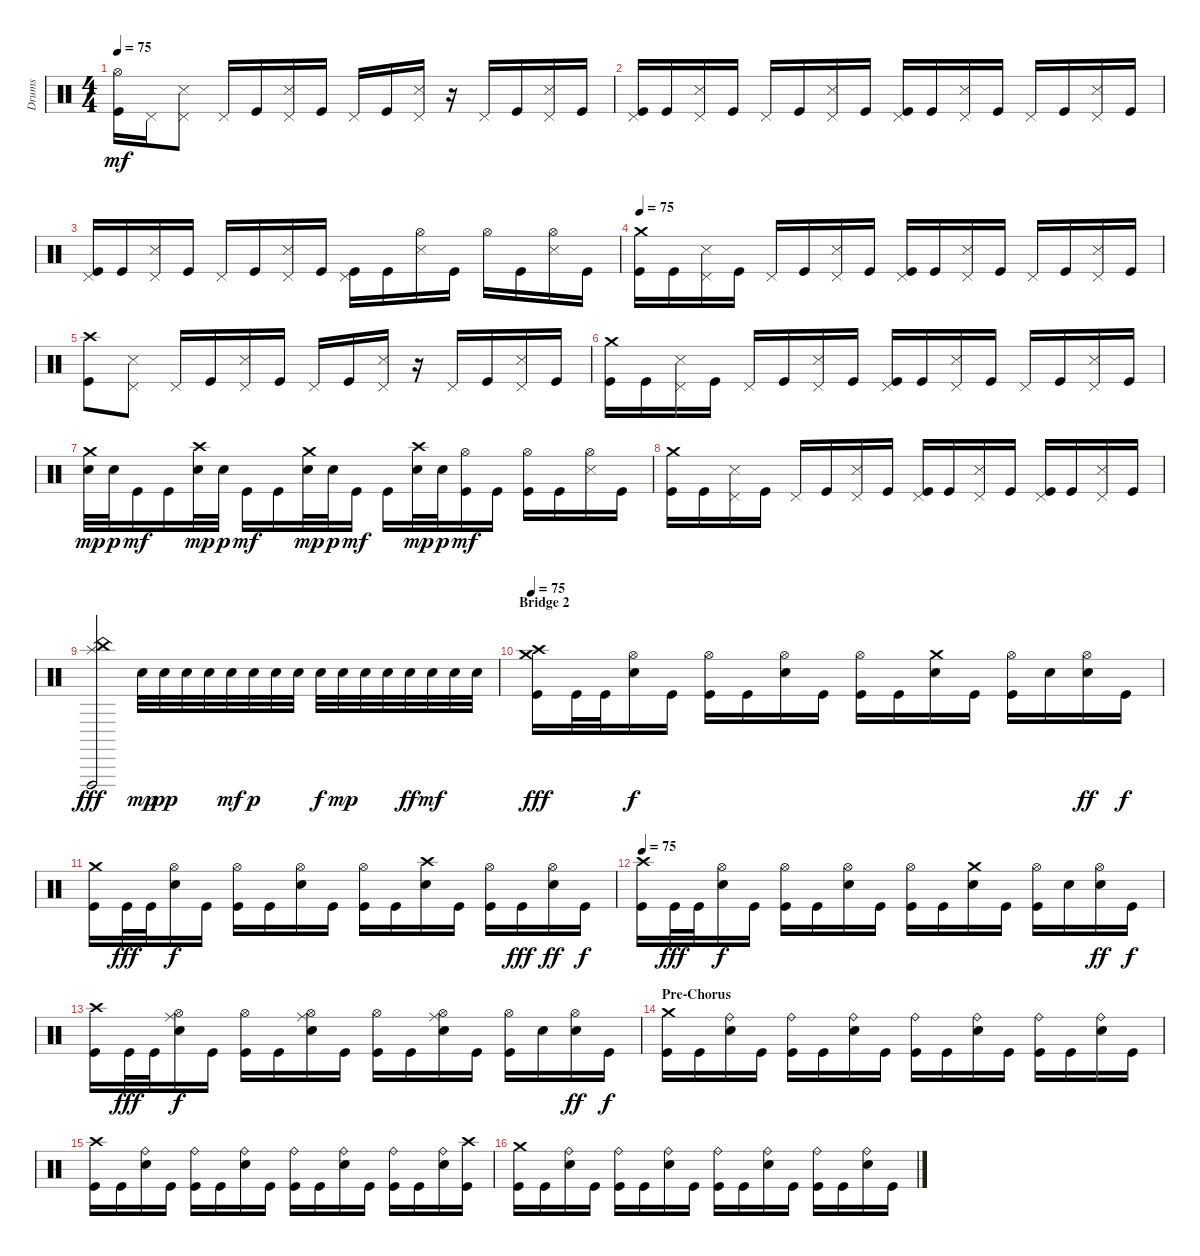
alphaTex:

\track ("Drums" "Drums") {instrument percussion}
\staff {score}
\articulation defaults
\ts (4 4)
\tempo 75
\clef neutral
\ks c
("Hi-Hat (open)" "Kick (hit)").16{dy mf} "Pedal Hi-Hat (hit)".16 ("Pedal Hi-Hat (hit)" "Snare (side stick) 3").8 "Pedal Hi-Hat (hit)".16 "Kick (hit)".16 ("Pedal Hi-Hat (hit)" "Snare (side stick) 3").16 "Kick (hit)".16 "Pedal Hi-Hat (hit)".16 "Kick (hit)".16 ("Pedal Hi-Hat (hit)" "Snare (side stick) 3").16 r.16 "Pedal Hi-Hat (hit)".16 "Kick (hit)".16 ("Pedal Hi-Hat (hit)" "Snare (side stick) 3").16 "Kick (hit)".16 |
("Pedal Hi-Hat (hit)" "Kick (hit)").16 "Kick (hit)".16 ("Pedal Hi-Hat (hit)" "Snare (side stick) 3").16 "Kick (hit)".16 "Pedal Hi-Hat (hit)".16 "Kick (hit)".16 ("Pedal Hi-Hat (hit)" "Snare (side stick) 3").16 "Kick (hit)".16 ("Pedal Hi-Hat (hit)" "Kick (hit)").16 "Kick (hit)".16 ("Pedal Hi-Hat (hit)" "Snare (side stick) 3").16 "Kick (hit)".16 "Pedal Hi-Hat (hit)".16 "Kick (hit)".16 ("Pedal Hi-Hat (hit)" "Snare (side stick) 3").16 "Kick (hit)".16 |
("Pedal Hi-Hat (hit)" "Kick (hit)").16 "Kick (hit)".16 ("Pedal Hi-Hat (hit)" "Snare (side stick) 3").16 "Kick (hit)".16 "Pedal Hi-Hat (hit)".16 "Kick (hit)".16 ("Pedal Hi-Hat (hit)" "Snare (side stick) 3").16 "Kick (hit)".16 ("Pedal Hi-Hat (hit)" "Kick (hit)").16 "Kick (hit)".16 ("Hi-Hat (open)" "Snare (side stick) 3").16 "Kick (hit)".16 "Hi-Hat (open)".16 "Kick (hit)".16 ("Hi-Hat (open)" "Snare (side stick) 3").16 "Kick (hit)".16 |
\tempo 75
("Crash medium (hit)" "Kick (hit)").16 "Kick (hit)".16 ("Pedal Hi-Hat (hit)" "Snare (side stick) 3").16 "Kick (hit)".16 "Pedal Hi-Hat (hit)".16 "Kick (hit)".16 ("Pedal Hi-Hat (hit)" "Snare (side stick) 3").16 "Kick (hit)".16 ("Pedal Hi-Hat (hit)" "Kick (hit)").16 "Kick (hit)".16 ("Pedal Hi-Hat (hit)" "Snare (side stick) 3").16 "Kick (hit)".16 "Pedal Hi-Hat (hit)".16 "Kick (hit)".16 ("Pedal Hi-Hat (hit)" "Snare (side stick) 3").16 "Kick (hit)".16 |
("Crash high (hit)" "Kick (hit)").8 ("Pedal Hi-Hat (hit)" "Snare (side stick) 3").8 "Pedal Hi-Hat (hit)".16 "Kick (hit)".16 ("Pedal Hi-Hat (hit)" "Snare (side stick) 3").16 "Kick (hit)".16 "Pedal Hi-Hat (hit)".16 "Kick (hit)".16 ("Pedal Hi-Hat (hit)" "Snare (side stick) 3").16 r.16 "Pedal Hi-Hat (hit)".16 "Kick (hit)".16 ("Pedal Hi-Hat (hit)" "Snare (side stick) 3").16 "Kick (hit)".16 |
("Crash medium (hit)" "Kick (hit)").16 "Kick (hit)".16 ("Pedal Hi-Hat (hit)" "Snare (side stick) 3").16 "Kick (hit)".16 "Pedal Hi-Hat (hit)".16 "Kick (hit)".16 ("Pedal Hi-Hat (hit)" "Snare (side stick) 3").16 "Kick (hit)".16 ("Pedal Hi-Hat (hit)" "Kick (hit)").16 "Kick (hit)".16 ("Pedal Hi-Hat (hit)" "Snare (side stick) 3").16 "Kick (hit)".16 "Pedal Hi-Hat (hit)".16 "Kick (hit)".16 ("Pedal Hi-Hat (hit)" "Snare (side stick) 3").16 "Kick (hit)".16 |
("Crash medium (hit)" "Snare (hit) 2").32{dy mp} "Snare (hit) 2".32{dy p} "Kick (hit)".16{dy mf} "Kick (hit)".16 ("Crash high (hit)" "Snare (hit) 2").32{dy mp} "Snare (hit) 2".32{dy p} "Kick (hit)".16{dy mf} "Kick (hit)".16 ("Crash medium (hit)" "Snare (hit) 2").32{dy mp} "Snare (hit) 2".32{dy p} "Kick (hit)".16{dy mf} "Kick (hit)".16 ("Crash high (hit)" "Snare (hit) 2").32{dy mp} "Snare (hit) 2".32{dy p} ("Hi-Hat (open)" "Kick (hit)").16{dy mf} "Kick (hit)".16 ("Hi-Hat (open)" "Kick (hit)").16 "Kick (hit)".16 ("Hi-Hat (open)" "Snare (side stick) 3").16 "Kick (hit)".16 |
("Crash medium (hit)" "Kick (hit)").16 "Kick (hit)".16 ("Pedal Hi-Hat (hit)" "Snare (side stick) 3").16 "Kick (hit)".16 "Pedal Hi-Hat (hit)".16 "Kick (hit)".16 ("Pedal Hi-Hat (hit)" "Snare (side stick) 3").16 "Kick (hit)".16 ("Pedal Hi-Hat (hit)" "Kick (hit)").16 "Kick (hit)".16 ("Pedal Hi-Hat (hit)" "Snare (side stick) 3").16 "Kick (hit)".16 ("Pedal Hi-Hat (hit)" "Kick (hit)").16 "Kick (hit)".16 ("Pedal Hi-Hat (hit)" "Snare (side stick) 3").16 "Kick (hit)".16 |
("Splash (hit)" "China (hit)" "Vibraslap (hit)").2{dy fff} "Electric Snare (hit)".32{dy mp} "Electric Snare (hit)".32{dy pp} "Electric Snare (hit)".32 "Electric Snare (hit)".32 "Electric Snare (hit)".32{dy mf} "Electric Snare (hit)".32{dy p} "Electric Snare (hit)".32 "Electric Snare (hit)".32 "Electric Snare (hit)".32{dy f} "Electric Snare (hit)".32{dy mp} "Electric Snare (hit)".32 "Electric Snare (hit)".32 "Electric Snare (hit)".32{dy ff} "Electric Snare (hit)".32{dy mf} "Electric Snare (hit)".32 "Electric Snare (hit)".32 |
\section ("" "Bridge 2")
\tempo 75
("Crash medium (hit)" "Crash high (hit)" "Kick (hit)").16{dy fff} "Kick (hit)".32 "Kick (hit)".32 ("Hi-Hat (open)" "Electric Snare (hit)").16{dy f} "Kick (hit)".16 ("Hi-Hat (open)" "Kick (hit)").16 "Kick (hit)".16 ("Hi-Hat (open)" "Electric Snare (hit)").16 "Kick (hit)".16 ("Hi-Hat (open)" "Kick (hit)").16 "Kick (hit)".16 ("Crash medium (hit)" "Electric Snare (hit)").16 "Kick (hit)".16 ("Hi-Hat (open)" "Kick (hit)").16 "Electric Snare (hit)".16 ("Hi-Hat (open)" "Electric Snare (hit)").16{dy ff} "Kick (hit)".16{dy f} |
("Crash medium (hit)" "Kick (hit)").16 "Kick (hit)".32{dy fff} "Kick (hit)".32 ("Hi-Hat (open)" "Electric Snare (hit)").16{dy f} "Kick (hit)".16 ("Hi-Hat (open)" "Kick (hit)").16 "Kick (hit)".16 ("Hi-Hat (open)" "Electric Snare (hit)").16 "Kick (hit)".16 ("Hi-Hat (open)" "Kick (hit)").16 "Kick (hit)".16 ("Crash high (hit)" "Electric Snare (hit)").16 "Kick (hit)".16 ("Hi-Hat (open)" "Kick (hit)").16 "Kick (hit)".16{dy fff} ("Hi-Hat (open)" "Electric Snare (hit)").16{dy ff} "Kick (hit)".16{dy f} |
\tempo 75
("Crash high (hit)" "Kick (hit)").16 "Kick (hit)".32{dy fff} "Kick (hit)".32 ("Hi-Hat (open)" "Electric Snare (hit)").16{dy f} "Kick (hit)".16 ("Hi-Hat (open)" "Kick (hit)").16 "Kick (hit)".16 ("Hi-Hat (open)" "Electric Snare (hit)").16 "Kick (hit)".16 ("Hi-Hat (open)" "Kick (hit)").16 "Kick (hit)".16 ("Crash medium (hit)" "Electric Snare (hit)").16 "Kick (hit)".16 ("Hi-Hat (open)" "Kick (hit)").16 "Electric Snare (hit)".16 ("Hi-Hat (open)" "Electric Snare (hit)").16{dy ff} "Kick (hit)".16{dy f} |
("Crash high (hit)" "Kick (hit)").16 "Kick (hit)".32{dy fff} "Kick (hit)".32 ("Hi-Hat (open)" "Ride (middle)" "Electric Snare (hit)").16{dy f} "Kick (hit)".16 ("Hi-Hat (open)" "Kick (hit)").16 "Kick (hit)".16 ("Hi-Hat (open)" "Ride (middle)" "Electric Snare (hit)").16 "Kick (hit)".16 ("Hi-Hat (open)" "Kick (hit)").16 "Kick (hit)".16 ("Hi-Hat (open)" "Ride (middle)" "Electric Snare (hit)").16 "Kick (hit)".16 ("Hi-Hat (open)" "Kick (hit)").16 "Electric Snare (hit)".16 ("Hi-Hat (open)" "Electric Snare (hit)").16{dy ff} "Kick (hit)".16{dy f} |
\section ("" "Pre-Chorus")
("Crash medium (hit)" "Kick (hit)").16 "Kick (hit)".16 ("Ride (bell)" "Electric Snare (hit)").16 "Kick (hit)".16 ("Ride (bell)" "Kick (hit)").16 "Kick (hit)".16 ("Ride (bell)" "Electric Snare (hit)").16 "Kick (hit)".16 ("Ride (bell)" "Kick (hit)").16 "Kick (hit)".16 ("Ride (bell)" "Electric Snare (hit)").16 "Kick (hit)".16 ("Ride (bell)" "Kick (hit)").16 "Kick (hit)".16 ("Ride (bell)" "Electric Snare (hit)").16 "Kick (hit)".16 |
("Crash high (hit)" "Kick (hit)").16 "Kick (hit)".16 ("Ride (bell)" "Electric Snare (hit)").16 "Kick (hit)".16 ("Ride (bell)" "Kick (hit)").16 "Kick (hit)".16 ("Ride (bell)" "Electric Snare (hit)").16 "Kick (hit)".16 ("Ride (bell)" "Kick (hit)").16 "Kick (hit)".16 ("Ride (bell)" "Electric Snare (hit)").16 "Kick (hit)".16 ("Ride (bell)" "Kick (hit)").16 "Kick (hit)".16 ("Ride (bell)" "Electric Snare (hit)").16 ("Crash high (hit)" "Kick (hit)").16 |
("Crash medium (hit)" "Kick (hit)").16 "Kick (hit)".16 ("Ride (bell)" "Electric Snare (hit)").16 "Kick (hit)".16 ("Ride (bell)" "Kick (hit)").16 "Kick (hit)".16 ("Ride (bell)" "Electric Snare (hit)").16 "Kick (hit)".16 ("Ride (bell)" "Kick (hit)").16 "Kick (hit)".16 ("Ride (bell)" "Electric Snare (hit)").16 "Kick (hit)".16 ("Ride (bell)" "Kick (hit)").16 "Kick (hit)".16 ("Ride (bell)" "Electric Snare (hit)").16 "Kick (hit)".16
